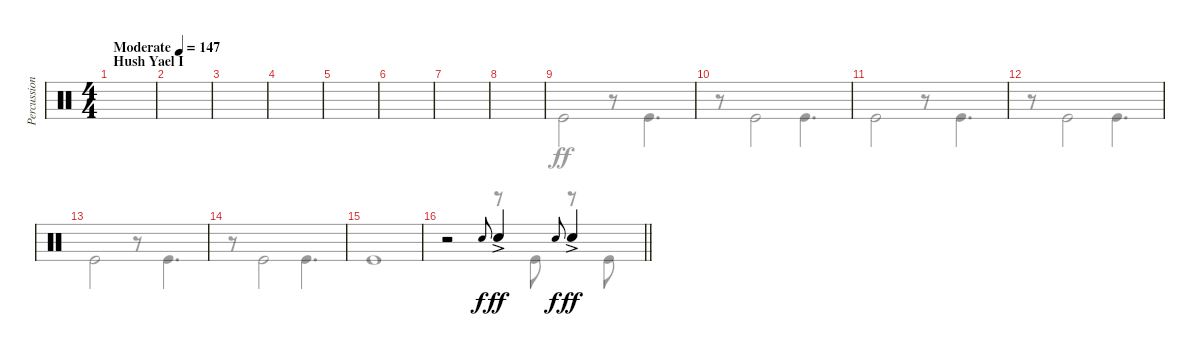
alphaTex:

\track ("Percussion" "Percussion") {instrument percussion}
\staff {score}
\articulation defaults
\voice
\ts (4 4)
\section ("" "Hush Yael I")
\tempo (147 "Moderate")
\clef neutral
\ks aminor
|
|
|
|
|
|
|
|
|
|
|
|
|
|
|
\barLineRight lightlight
r.2 "Electric Snare (hit)".8{gr onbeat} "Electric Snare (hit)"{ac}.4{dy ff} "Electric Snare (hit)".8{gr onbeat dy f} "Electric Snare (hit)"{ac}.4{dy ff}
\voice
\clef neutral
\ottava regular
\simile none
\ks aminor
|
|
|
|
|
|
|
|
"Kick (hit)".2 r.8 "Kick (hit)".4{d} |
r.8 "Kick (hit)".2 "Kick (hit)".4{d} |
"Kick (hit)".2 r.8 "Kick (hit)".4{d} |
r.8 "Kick (hit)".2 "Kick (hit)".4{d} |
"Kick (hit)".2 r.8 "Kick (hit)".4{d} |
r.8 "Kick (hit)".2 "Kick (hit)".4{d} |
"Kick (hit)".1 |
\barLineRight lightlight
r.2 r.8 "Kick (hit)".8 r.8 "Kick (hit)".8
